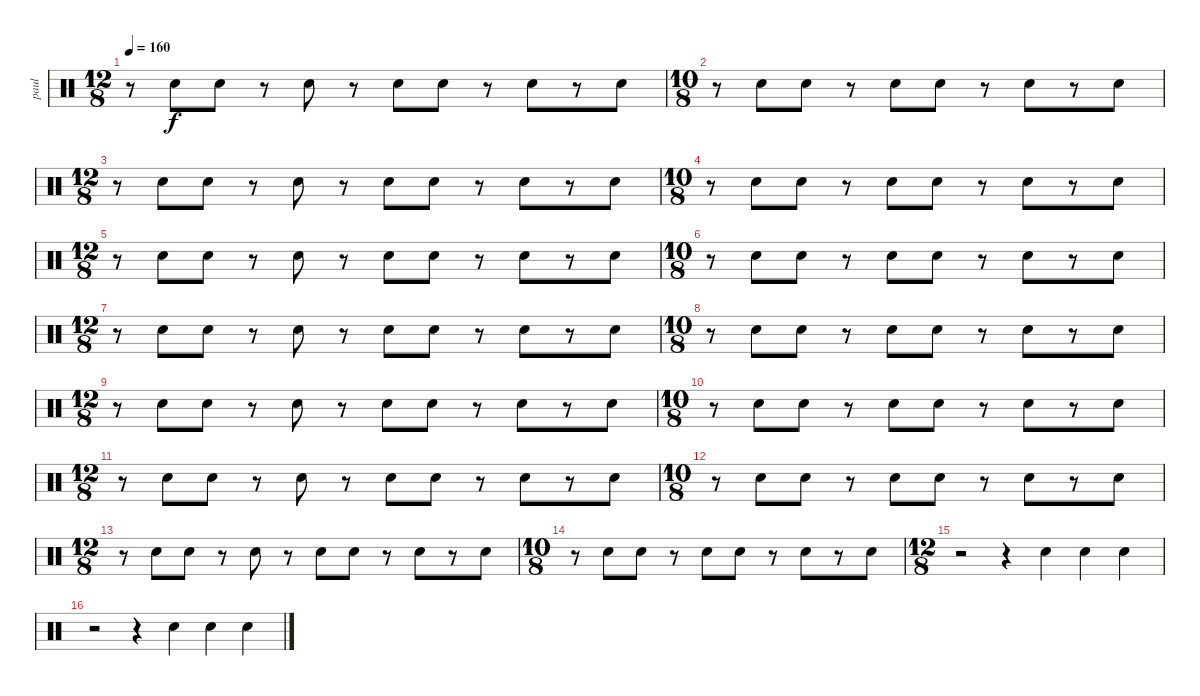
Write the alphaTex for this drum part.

\track ("paul" "paul") {instrument percussion}
\staff {score}
\articulation defaults
\ts (12 8)
\tempo 160
\clef neutral
\ks c
r.8{dy f} "Hand Clap (hit)".8 "Hand Clap (hit)".8 r.8 "Hand Clap (hit)".8 r.8 "Hand Clap (hit)".8 "Hand Clap (hit)".8 r.8 "Hand Clap (hit)".8 r.8 "Hand Clap (hit)".8 |
\ts (10 8)
r.8 "Hand Clap (hit)".8 "Hand Clap (hit)".8 r.8 "Hand Clap (hit)".8 "Hand Clap (hit)".8 r.8 "Hand Clap (hit)".8 r.8 "Hand Clap (hit)".8 |
\ts (12 8)
r.8 "Hand Clap (hit)".8 "Hand Clap (hit)".8 r.8 "Hand Clap (hit)".8 r.8 "Hand Clap (hit)".8 "Hand Clap (hit)".8 r.8 "Hand Clap (hit)".8 r.8 "Hand Clap (hit)".8 |
\ts (10 8)
r.8 "Hand Clap (hit)".8 "Hand Clap (hit)".8 r.8 "Hand Clap (hit)".8 "Hand Clap (hit)".8 r.8 "Hand Clap (hit)".8 r.8 "Hand Clap (hit)".8 |
\ts (12 8)
r.8 "Hand Clap (hit)".8 "Hand Clap (hit)".8 r.8 "Hand Clap (hit)".8 r.8 "Hand Clap (hit)".8 "Hand Clap (hit)".8 r.8 "Hand Clap (hit)".8 r.8 "Hand Clap (hit)".8 |
\ts (10 8)
r.8 "Hand Clap (hit)".8 "Hand Clap (hit)".8 r.8 "Hand Clap (hit)".8 "Hand Clap (hit)".8 r.8 "Hand Clap (hit)".8 r.8 "Hand Clap (hit)".8 |
\ts (12 8)
r.8 "Hand Clap (hit)".8 "Hand Clap (hit)".8 r.8 "Hand Clap (hit)".8 r.8 "Hand Clap (hit)".8 "Hand Clap (hit)".8 r.8 "Hand Clap (hit)".8 r.8 "Hand Clap (hit)".8 |
\ts (10 8)
r.8 "Hand Clap (hit)".8 "Hand Clap (hit)".8 r.8 "Hand Clap (hit)".8 "Hand Clap (hit)".8 r.8 "Hand Clap (hit)".8 r.8 "Hand Clap (hit)".8 |
\ts (12 8)
r.8 "Hand Clap (hit)".8 "Hand Clap (hit)".8 r.8 "Hand Clap (hit)".8 r.8 "Hand Clap (hit)".8 "Hand Clap (hit)".8 r.8 "Hand Clap (hit)".8 r.8 "Hand Clap (hit)".8 |
\ts (10 8)
r.8 "Hand Clap (hit)".8 "Hand Clap (hit)".8 r.8 "Hand Clap (hit)".8 "Hand Clap (hit)".8 r.8 "Hand Clap (hit)".8 r.8 "Hand Clap (hit)".8 |
\ts (12 8)
r.8 "Hand Clap (hit)".8 "Hand Clap (hit)".8 r.8 "Hand Clap (hit)".8 r.8 "Hand Clap (hit)".8 "Hand Clap (hit)".8 r.8 "Hand Clap (hit)".8 r.8 "Hand Clap (hit)".8 |
\ts (10 8)
r.8 "Hand Clap (hit)".8 "Hand Clap (hit)".8 r.8 "Hand Clap (hit)".8 "Hand Clap (hit)".8 r.8 "Hand Clap (hit)".8 r.8 "Hand Clap (hit)".8 |
\ts (12 8)
r.8 "Hand Clap (hit)".8 "Hand Clap (hit)".8 r.8 "Hand Clap (hit)".8 r.8 "Hand Clap (hit)".8 "Hand Clap (hit)".8 r.8 "Hand Clap (hit)".8 r.8 "Hand Clap (hit)".8 |
\ts (10 8)
r.8 "Hand Clap (hit)".8 "Hand Clap (hit)".8 r.8 "Hand Clap (hit)".8 "Hand Clap (hit)".8 r.8 "Hand Clap (hit)".8 r.8 "Hand Clap (hit)".8 |
\ts (12 8)
r.2 r.4 "Hand Clap (hit)".4 "Hand Clap (hit)".4 "Hand Clap (hit)".4 |
r.2 r.4 "Hand Clap (hit)".4 "Hand Clap (hit)".4 "Hand Clap (hit)".4
